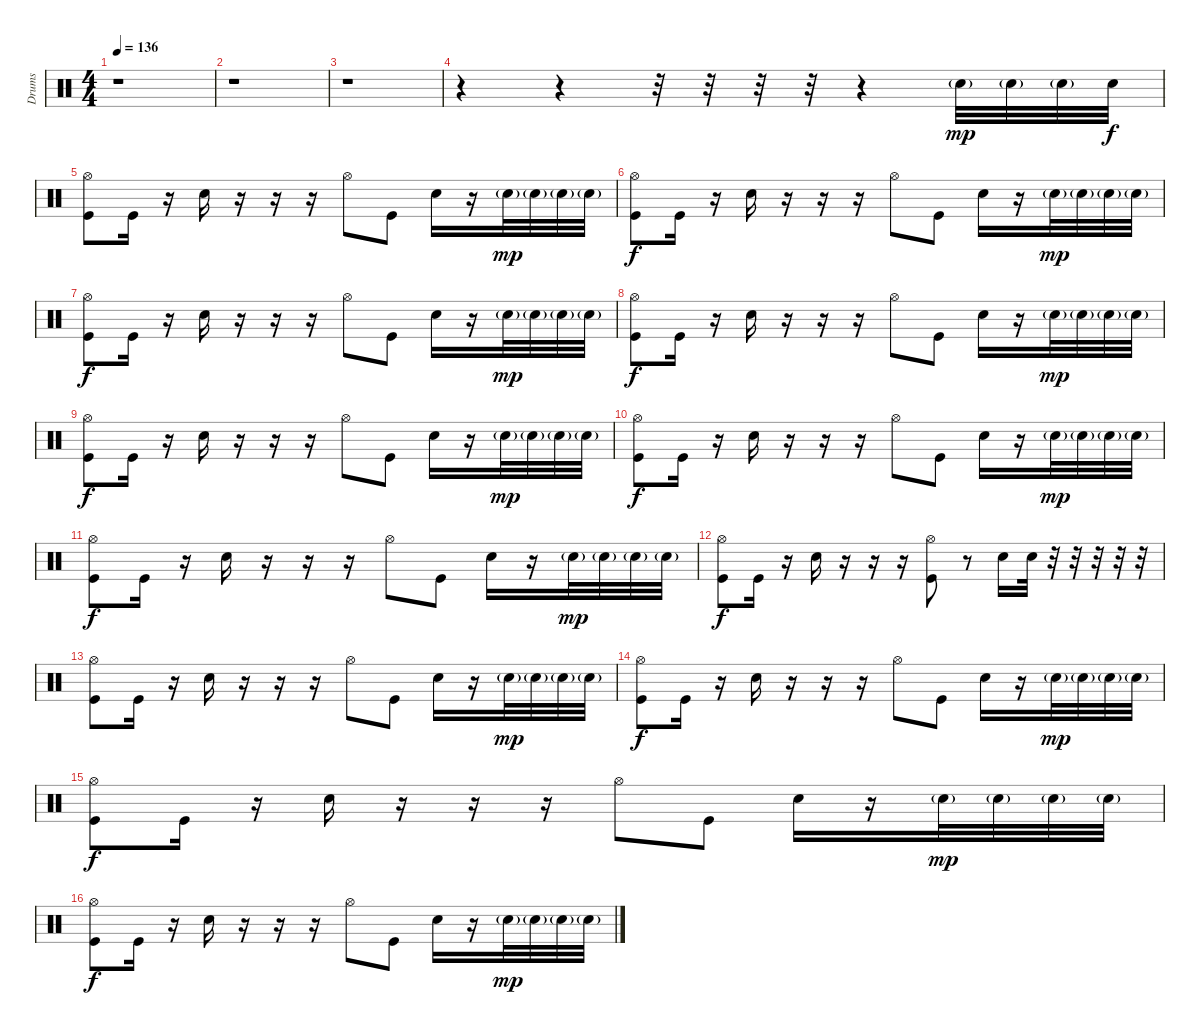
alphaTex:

\track ("Drums" "Drums") {instrument percussion}
\staff {score}
\articulation defaults
\ts (4 4)
\tempo 136
\clef neutral
\ks c
r.1{dy mp} |
r.1 |
r.1 |
r.4 r.4 r.32 r.32 r.32 r.32 r.4 "Electric Snare (hit)"{g}.32 "Electric Snare (hit)"{g}.32 "Electric Snare (hit)"{g}.32 "Electric Snare (hit)".32{dy f} |
("Hi-Hat (open)" "Kick (hit)").8 "Kick (hit)".16 r.16 "Electric Snare (hit)".16 r.16 r.16 r.16 "Hi-Hat (open)".8 "Kick (hit)".8 "Electric Snare (hit)".16 r.16 "Electric Snare (hit)"{g}.32{dy mp} "Electric Snare (hit)"{g}.32 "Electric Snare (hit)"{g}.32 "Electric Snare (hit)"{g}.32 |
("Hi-Hat (open)" "Kick (hit)").8{dy f} "Kick (hit)".16 r.16 "Electric Snare (hit)".16 r.16 r.16 r.16 "Hi-Hat (open)".8 "Kick (hit)".8 "Electric Snare (hit)".16 r.16 "Electric Snare (hit)"{g}.32{dy mp} "Electric Snare (hit)"{g}.32 "Electric Snare (hit)"{g}.32 "Electric Snare (hit)"{g}.32 |
("Hi-Hat (open)" "Kick (hit)").8{dy f} "Kick (hit)".16 r.16 "Electric Snare (hit)".16 r.16 r.16 r.16 "Hi-Hat (open)".8 "Kick (hit)".8 "Electric Snare (hit)".16 r.16 "Electric Snare (hit)"{g}.32{dy mp} "Electric Snare (hit)"{g}.32 "Electric Snare (hit)"{g}.32 "Electric Snare (hit)"{g}.32 |
("Hi-Hat (open)" "Kick (hit)").8{dy f} "Kick (hit)".16 r.16 "Electric Snare (hit)".16 r.16 r.16 r.16 "Hi-Hat (open)".8 "Kick (hit)".8 "Electric Snare (hit)".16 r.16 "Electric Snare (hit)"{g}.32{dy mp} "Electric Snare (hit)"{g}.32 "Electric Snare (hit)"{g}.32 "Electric Snare (hit)"{g}.32 |
("Hi-Hat (open)" "Kick (hit)").8{dy f} "Kick (hit)".16 r.16 "Electric Snare (hit)".16 r.16 r.16 r.16 "Hi-Hat (open)".8 "Kick (hit)".8 "Electric Snare (hit)".16 r.16 "Electric Snare (hit)"{g}.32{dy mp} "Electric Snare (hit)"{g}.32 "Electric Snare (hit)"{g}.32 "Electric Snare (hit)"{g}.32 |
("Hi-Hat (open)" "Kick (hit)").8{dy f} "Kick (hit)".16 r.16 "Electric Snare (hit)".16 r.16 r.16 r.16 "Hi-Hat (open)".8 "Kick (hit)".8 "Electric Snare (hit)".16 r.16 "Electric Snare (hit)"{g}.32{dy mp} "Electric Snare (hit)"{g}.32 "Electric Snare (hit)"{g}.32 "Electric Snare (hit)"{g}.32 |
("Hi-Hat (open)" "Kick (hit)").8{dy f} "Kick (hit)".16 r.16 "Electric Snare (hit)".16 r.16 r.16 r.16 "Hi-Hat (open)".8 "Kick (hit)".8 "Electric Snare (hit)".16 r.16 "Electric Snare (hit)"{g}.32{dy mp} "Electric Snare (hit)"{g}.32 "Electric Snare (hit)"{g}.32 "Electric Snare (hit)"{g}.32 |
("Hi-Hat (open)" "Kick (hit)").8{dy f} "Kick (hit)".16 r.16 "Electric Snare (hit)".16 r.16 r.16 r.16 ("Hi-Hat (open)" "Kick (hit)").8 r.8 "Electric Snare (hit)".16 "Electric Snare (hit)".32 r.32 r.32 r.32 r.32 r.32 |
("Hi-Hat (open)" "Kick (hit)").8 "Kick (hit)".16 r.16 "Electric Snare (hit)".16 r.16 r.16 r.16 "Hi-Hat (open)".8 "Kick (hit)".8 "Electric Snare (hit)".16 r.16 "Electric Snare (hit)"{g}.32{dy mp} "Electric Snare (hit)"{g}.32 "Electric Snare (hit)"{g}.32 "Electric Snare (hit)"{g}.32 |
("Hi-Hat (open)" "Kick (hit)").8{dy f} "Kick (hit)".16 r.16 "Electric Snare (hit)".16 r.16 r.16 r.16 "Hi-Hat (open)".8 "Kick (hit)".8 "Electric Snare (hit)".16 r.16 "Electric Snare (hit)"{g}.32{dy mp} "Electric Snare (hit)"{g}.32 "Electric Snare (hit)"{g}.32 "Electric Snare (hit)"{g}.32 |
("Hi-Hat (open)" "Kick (hit)").8{dy f} "Kick (hit)".16 r.16 "Electric Snare (hit)".16 r.16 r.16 r.16 "Hi-Hat (open)".8 "Kick (hit)".8 "Electric Snare (hit)".16 r.16 "Electric Snare (hit)"{g}.32{dy mp} "Electric Snare (hit)"{g}.32 "Electric Snare (hit)"{g}.32 "Electric Snare (hit)"{g}.32 |
("Hi-Hat (open)" "Kick (hit)").8{dy f} "Kick (hit)".16 r.16 "Electric Snare (hit)".16 r.16 r.16 r.16 "Hi-Hat (open)".8 "Kick (hit)".8 "Electric Snare (hit)".16 r.16 "Electric Snare (hit)"{g}.32{dy mp} "Electric Snare (hit)"{g}.32 "Electric Snare (hit)"{g}.32 "Electric Snare (hit)"{g}.32
